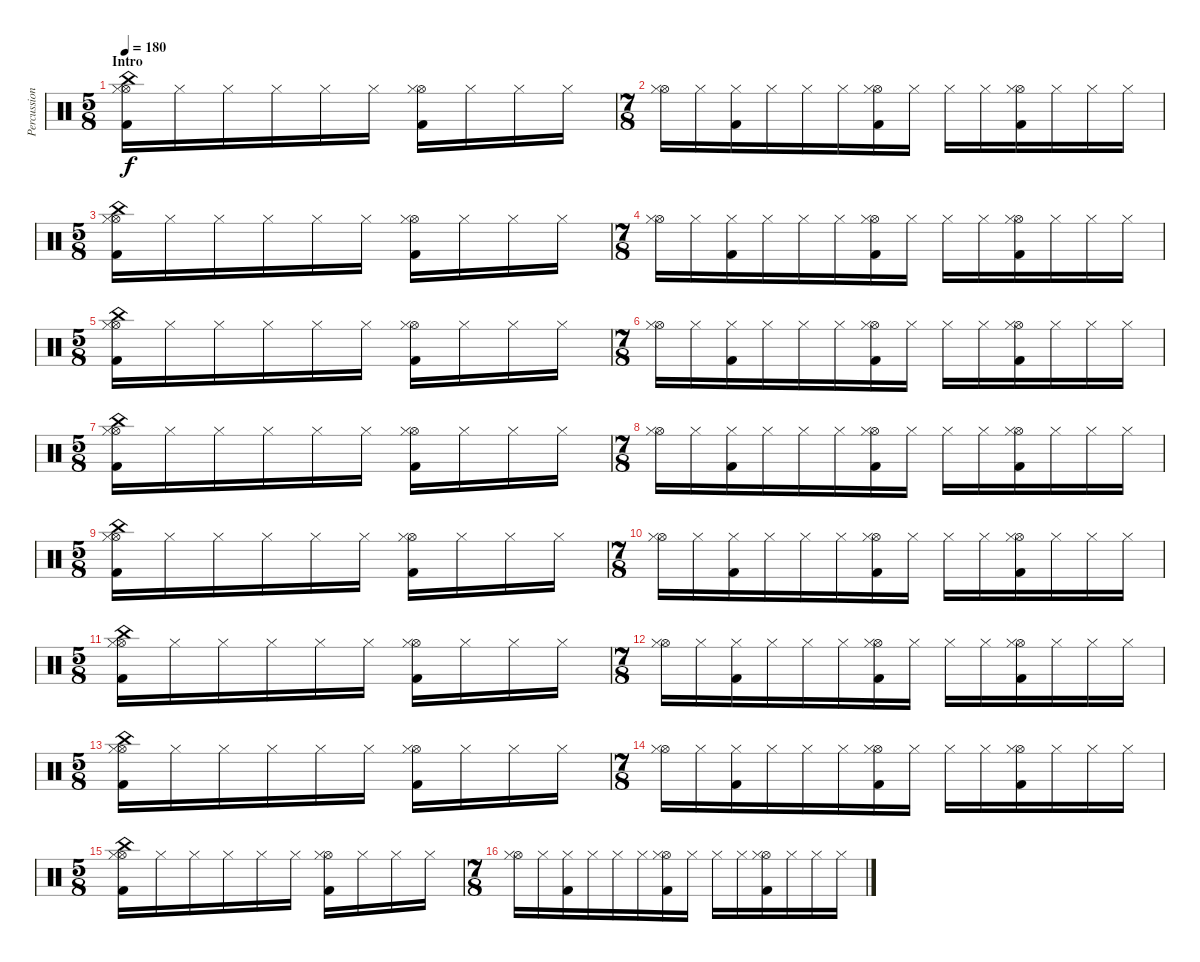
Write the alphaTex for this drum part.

\track ("Percussions" "Percussion") {instrument percussion}
\staff {score}
\articulation defaults
\ts (5 8)
\section ("" "Intro")
\tempo 180
\clef neutral
\ks c
("Hi-Hat (open)" "China (hit)" "Hi-Hat (closed)" "Kick (hit) 2").16{dy f} "Hi-Hat (closed)".16 "Hi-Hat (closed)".16 "Hi-Hat (closed)".16 "Hi-Hat (closed)".16 "Hi-Hat (closed)".16 ("Hi-Hat (open)" "Hi-Hat (closed)" "Kick (hit) 2").16 "Hi-Hat (closed)".16 "Hi-Hat (closed)".16 "Hi-Hat (closed)".16 |
\ts (7 8)
("Hi-Hat (open)" "Hi-Hat (closed)").16 "Hi-Hat (closed)".16 ("Hi-Hat (closed)" "Kick (hit) 2").16 "Hi-Hat (closed)".16 "Hi-Hat (closed)".16 "Hi-Hat (closed)".16 ("Hi-Hat (open)" "Hi-Hat (closed)" "Kick (hit) 2").16 "Hi-Hat (closed)".16 "Hi-Hat (closed)".16 "Hi-Hat (closed)".16 ("Hi-Hat (open)" "Hi-Hat (closed)" "Kick (hit) 2").16 "Hi-Hat (closed)".16 "Hi-Hat (closed)".16 "Hi-Hat (closed)".16 |
\ts (5 8)
("Hi-Hat (open)" "China (hit)" "Hi-Hat (closed)" "Kick (hit) 2").16 "Hi-Hat (closed)".16 "Hi-Hat (closed)".16 "Hi-Hat (closed)".16 "Hi-Hat (closed)".16 "Hi-Hat (closed)".16 ("Hi-Hat (open)" "Hi-Hat (closed)" "Kick (hit) 2").16 "Hi-Hat (closed)".16 "Hi-Hat (closed)".16 "Hi-Hat (closed)".16 |
\ts (7 8)
("Hi-Hat (open)" "Hi-Hat (closed)").16 "Hi-Hat (closed)".16 ("Hi-Hat (closed)" "Kick (hit) 2").16 "Hi-Hat (closed)".16 "Hi-Hat (closed)".16 "Hi-Hat (closed)".16 ("Hi-Hat (open)" "Hi-Hat (closed)" "Kick (hit) 2").16 "Hi-Hat (closed)".16 "Hi-Hat (closed)".16 "Hi-Hat (closed)".16 ("Hi-Hat (open)" "Hi-Hat (closed)" "Kick (hit) 2").16 "Hi-Hat (closed)".16 "Hi-Hat (closed)".16 "Hi-Hat (closed)".16 |
\ts (5 8)
("Hi-Hat (open)" "China (hit)" "Hi-Hat (closed)" "Kick (hit) 2").16 "Hi-Hat (closed)".16 "Hi-Hat (closed)".16 "Hi-Hat (closed)".16 "Hi-Hat (closed)".16 "Hi-Hat (closed)".16 ("Hi-Hat (open)" "Hi-Hat (closed)" "Kick (hit) 2").16 "Hi-Hat (closed)".16 "Hi-Hat (closed)".16 "Hi-Hat (closed)".16 |
\ts (7 8)
("Hi-Hat (open)" "Hi-Hat (closed)").16 "Hi-Hat (closed)".16 ("Hi-Hat (closed)" "Kick (hit) 2").16 "Hi-Hat (closed)".16 "Hi-Hat (closed)".16 "Hi-Hat (closed)".16 ("Hi-Hat (open)" "Hi-Hat (closed)" "Kick (hit) 2").16 "Hi-Hat (closed)".16 "Hi-Hat (closed)".16 "Hi-Hat (closed)".16 ("Hi-Hat (open)" "Hi-Hat (closed)" "Kick (hit) 2").16 "Hi-Hat (closed)".16 "Hi-Hat (closed)".16 "Hi-Hat (closed)".16 |
\ts (5 8)
("Hi-Hat (open)" "China (hit)" "Hi-Hat (closed)" "Kick (hit) 2").16 "Hi-Hat (closed)".16 "Hi-Hat (closed)".16 "Hi-Hat (closed)".16 "Hi-Hat (closed)".16 "Hi-Hat (closed)".16 ("Hi-Hat (open)" "Hi-Hat (closed)" "Kick (hit) 2").16 "Hi-Hat (closed)".16 "Hi-Hat (closed)".16 "Hi-Hat (closed)".16 |
\ts (7 8)
("Hi-Hat (open)" "Hi-Hat (closed)").16 "Hi-Hat (closed)".16 ("Hi-Hat (closed)" "Kick (hit) 2").16 "Hi-Hat (closed)".16 "Hi-Hat (closed)".16 "Hi-Hat (closed)".16 ("Hi-Hat (open)" "Hi-Hat (closed)" "Kick (hit) 2").16 "Hi-Hat (closed)".16 "Hi-Hat (closed)".16 "Hi-Hat (closed)".16 ("Hi-Hat (open)" "Hi-Hat (closed)" "Kick (hit) 2").16 "Hi-Hat (closed)".16 "Hi-Hat (closed)".16 "Hi-Hat (closed)".16 |
\ts (5 8)
("Hi-Hat (open)" "China (hit)" "Hi-Hat (closed)" "Kick (hit) 2").16 "Hi-Hat (closed)".16 "Hi-Hat (closed)".16 "Hi-Hat (closed)".16 "Hi-Hat (closed)".16 "Hi-Hat (closed)".16 ("Hi-Hat (open)" "Hi-Hat (closed)" "Kick (hit) 2").16 "Hi-Hat (closed)".16 "Hi-Hat (closed)".16 "Hi-Hat (closed)".16 |
\ts (7 8)
("Hi-Hat (open)" "Hi-Hat (closed)").16 "Hi-Hat (closed)".16 ("Hi-Hat (closed)" "Kick (hit) 2").16 "Hi-Hat (closed)".16 "Hi-Hat (closed)".16 "Hi-Hat (closed)".16 ("Hi-Hat (open)" "Hi-Hat (closed)" "Kick (hit) 2").16 "Hi-Hat (closed)".16 "Hi-Hat (closed)".16 "Hi-Hat (closed)".16 ("Hi-Hat (open)" "Hi-Hat (closed)" "Kick (hit) 2").16 "Hi-Hat (closed)".16 "Hi-Hat (closed)".16 "Hi-Hat (closed)".16 |
\ts (5 8)
("Hi-Hat (open)" "China (hit)" "Hi-Hat (closed)" "Kick (hit) 2").16 "Hi-Hat (closed)".16 "Hi-Hat (closed)".16 "Hi-Hat (closed)".16 "Hi-Hat (closed)".16 "Hi-Hat (closed)".16 ("Hi-Hat (open)" "Hi-Hat (closed)" "Kick (hit) 2").16 "Hi-Hat (closed)".16 "Hi-Hat (closed)".16 "Hi-Hat (closed)".16 |
\ts (7 8)
("Hi-Hat (open)" "Hi-Hat (closed)").16 "Hi-Hat (closed)".16 ("Hi-Hat (closed)" "Kick (hit) 2").16 "Hi-Hat (closed)".16 "Hi-Hat (closed)".16 "Hi-Hat (closed)".16 ("Hi-Hat (open)" "Hi-Hat (closed)" "Kick (hit) 2").16 "Hi-Hat (closed)".16 "Hi-Hat (closed)".16 "Hi-Hat (closed)".16 ("Hi-Hat (open)" "Hi-Hat (closed)" "Kick (hit) 2").16 "Hi-Hat (closed)".16 "Hi-Hat (closed)".16 "Hi-Hat (closed)".16 |
\ts (5 8)
("Hi-Hat (open)" "China (hit)" "Hi-Hat (closed)" "Kick (hit) 2").16 "Hi-Hat (closed)".16 "Hi-Hat (closed)".16 "Hi-Hat (closed)".16 "Hi-Hat (closed)".16 "Hi-Hat (closed)".16 ("Hi-Hat (open)" "Hi-Hat (closed)" "Kick (hit) 2").16 "Hi-Hat (closed)".16 "Hi-Hat (closed)".16 "Hi-Hat (closed)".16 |
\ts (7 8)
("Hi-Hat (open)" "Hi-Hat (closed)").16 "Hi-Hat (closed)".16 ("Hi-Hat (closed)" "Kick (hit) 2").16 "Hi-Hat (closed)".16 "Hi-Hat (closed)".16 "Hi-Hat (closed)".16 ("Hi-Hat (open)" "Hi-Hat (closed)" "Kick (hit) 2").16 "Hi-Hat (closed)".16 "Hi-Hat (closed)".16 "Hi-Hat (closed)".16 ("Hi-Hat (open)" "Hi-Hat (closed)" "Kick (hit) 2").16 "Hi-Hat (closed)".16 "Hi-Hat (closed)".16 "Hi-Hat (closed)".16 |
\ts (5 8)
("Hi-Hat (open)" "China (hit)" "Hi-Hat (closed)" "Kick (hit) 2").16 "Hi-Hat (closed)".16 "Hi-Hat (closed)".16 "Hi-Hat (closed)".16 "Hi-Hat (closed)".16 "Hi-Hat (closed)".16 ("Hi-Hat (open)" "Hi-Hat (closed)" "Kick (hit) 2").16 "Hi-Hat (closed)".16 "Hi-Hat (closed)".16 "Hi-Hat (closed)".16 |
\ts (7 8)
("Hi-Hat (open)" "Hi-Hat (closed)").16 "Hi-Hat (closed)".16 ("Hi-Hat (closed)" "Kick (hit) 2").16 "Hi-Hat (closed)".16 "Hi-Hat (closed)".16 "Hi-Hat (closed)".16 ("Hi-Hat (open)" "Hi-Hat (closed)" "Kick (hit) 2").16 "Hi-Hat (closed)".16 "Hi-Hat (closed)".16 "Hi-Hat (closed)".16 ("Hi-Hat (open)" "Hi-Hat (closed)" "Kick (hit) 2").16 "Hi-Hat (closed)".16 "Hi-Hat (closed)".16 "Hi-Hat (closed)".16
